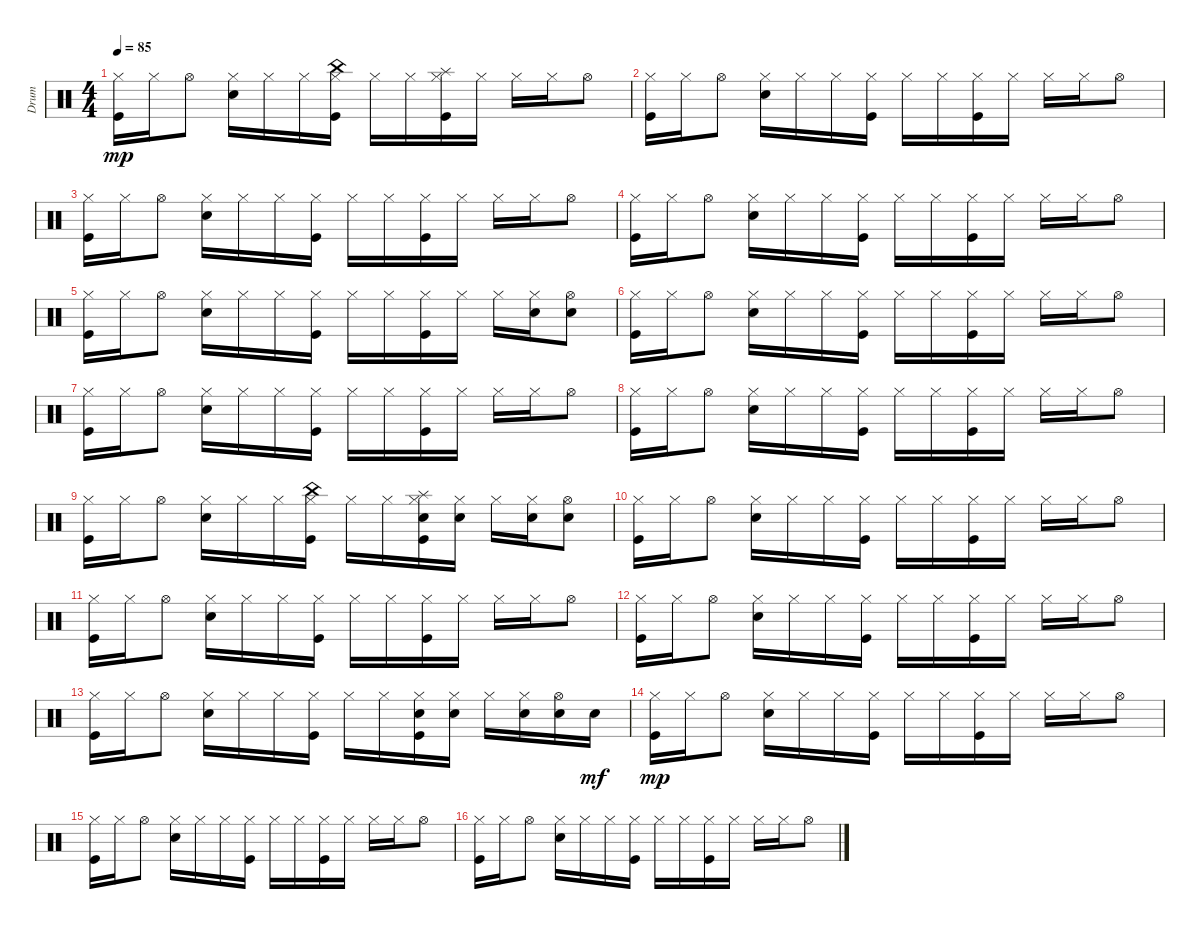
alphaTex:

\track ("Drum" "Drum") {instrument percussion}
\staff {score}
\articulation defaults
\ts (4 4)
\tempo 85
\clef neutral
\ks c
("Kick (hit)" "Hi-Hat (closed)").16{dy mp} "Hi-Hat (closed)".16 "Hi-Hat (open)".8 ("Snare (hit) 2" "Hi-Hat (closed)").16 "Hi-Hat (closed)".16 "Hi-Hat (closed)".16 ("China (hit)" "Kick (hit)" "Hi-Hat (closed)").16 "Hi-Hat (closed)".16 "Hi-Hat (closed)".16 ("Splash (hit)" "Kick (hit)" "Hi-Hat (closed)").16 "Hi-Hat (closed)".16 "Hi-Hat (closed)".16 "Hi-Hat (closed)".16 "Hi-Hat (open)".8 |
("Kick (hit)" "Hi-Hat (closed)").16 "Hi-Hat (closed)".16 "Hi-Hat (open)".8 ("Snare (hit) 2" "Hi-Hat (closed)").16 "Hi-Hat (closed)".16 "Hi-Hat (closed)".16 ("Kick (hit)" "Hi-Hat (closed)").16 "Hi-Hat (closed)".16 "Hi-Hat (closed)".16 ("Hi-Hat (closed)" "Kick (hit)").16 "Hi-Hat (closed)".16 "Hi-Hat (closed)".16 "Hi-Hat (closed)".16 "Hi-Hat (open)".8 |
("Hi-Hat (closed)" "Kick (hit)").16 "Hi-Hat (closed)".16 "Hi-Hat (open)".8 ("Hi-Hat (closed)" "Snare (hit) 2").16 "Hi-Hat (closed)".16 "Hi-Hat (closed)".16 ("Kick (hit)" "Hi-Hat (closed)").16 "Hi-Hat (closed)".16 "Hi-Hat (closed)".16 ("Kick (hit)" "Hi-Hat (closed)").16 "Hi-Hat (closed)".16 "Hi-Hat (closed)".16 "Hi-Hat (closed)".16 "Hi-Hat (open)".8 |
("Kick (hit)" "Hi-Hat (closed)").16 "Hi-Hat (closed)".16 "Hi-Hat (open)".8 ("Snare (hit) 2" "Hi-Hat (closed)").16 "Hi-Hat (closed)".16 "Hi-Hat (closed)".16 ("Kick (hit)" "Hi-Hat (closed)").16 "Hi-Hat (closed)".16 "Hi-Hat (closed)".16 ("Kick (hit)" "Hi-Hat (closed)").16 "Hi-Hat (closed)".16 "Hi-Hat (closed)".16 "Hi-Hat (closed)".16 "Hi-Hat (open)".8 |
("Kick (hit)" "Hi-Hat (closed)").16 "Hi-Hat (closed)".16 "Hi-Hat (open)".8 ("Snare (hit) 2" "Hi-Hat (closed)").16 "Hi-Hat (closed)".16 "Hi-Hat (closed)".16 ("Kick (hit)" "Hi-Hat (closed)").16 "Hi-Hat (closed)".16 "Hi-Hat (closed)".16 ("Kick (hit)" "Hi-Hat (closed)").16 "Hi-Hat (closed)".16 "Hi-Hat (closed)".16 ("Hi-Hat (closed)" "Snare (hit) 2").16 ("Hi-Hat (open)" "Snare (hit) 2").8 |
("Kick (hit)" "Hi-Hat (closed)").16 "Hi-Hat (closed)".16 "Hi-Hat (open)".8 ("Snare (hit) 2" "Hi-Hat (closed)").16 "Hi-Hat (closed)".16 "Hi-Hat (closed)".16 ("Kick (hit)" "Hi-Hat (closed)").16 "Hi-Hat (closed)".16 "Hi-Hat (closed)".16 ("Hi-Hat (closed)" "Kick (hit)").16 "Hi-Hat (closed)".16 "Hi-Hat (closed)".16 "Hi-Hat (closed)".16 "Hi-Hat (open)".8 |
("Hi-Hat (closed)" "Kick (hit)").16 "Hi-Hat (closed)".16 "Hi-Hat (open)".8 ("Hi-Hat (closed)" "Snare (hit) 2").16 "Hi-Hat (closed)".16 "Hi-Hat (closed)".16 ("Kick (hit)" "Hi-Hat (closed)").16 "Hi-Hat (closed)".16 "Hi-Hat (closed)".16 ("Kick (hit)" "Hi-Hat (closed)").16 "Hi-Hat (closed)".16 "Hi-Hat (closed)".16 "Hi-Hat (closed)".16 "Hi-Hat (open)".8 |
("Hi-Hat (closed)" "Kick (hit)").16 "Hi-Hat (closed)".16 "Hi-Hat (open)".8 ("Hi-Hat (closed)" "Snare (hit) 2").16 "Hi-Hat (closed)".16 "Hi-Hat (closed)".16 ("Hi-Hat (closed)" "Kick (hit)").16 "Hi-Hat (closed)".16 "Hi-Hat (closed)".16 ("Hi-Hat (closed)" "Kick (hit)").16 "Hi-Hat (closed)".16 "Hi-Hat (closed)".16 "Hi-Hat (closed)".16 "Hi-Hat (open)".8 |
("Kick (hit)" "Hi-Hat (closed)").16 "Hi-Hat (closed)".16 "Hi-Hat (open)".8 ("Snare (hit) 2" "Hi-Hat (closed)").16 "Hi-Hat (closed)".16 "Hi-Hat (closed)".16 ("China (hit)" "Kick (hit)" "Hi-Hat (closed)").16 "Hi-Hat (closed)".16 "Hi-Hat (closed)".16 ("Splash (hit)" "Kick (hit)" "Hi-Hat (closed)" "Snare (hit) 2").16 ("Hi-Hat (closed)" "Snare (hit) 2").16 "Hi-Hat (closed)".16 ("Hi-Hat (closed)" "Snare (hit) 2").16 ("Hi-Hat (open)" "Snare (hit) 2").8 |
("Kick (hit)" "Hi-Hat (closed)").16 "Hi-Hat (closed)".16 "Hi-Hat (open)".8 ("Snare (hit) 2" "Hi-Hat (closed)").16 "Hi-Hat (closed)".16 "Hi-Hat (closed)".16 ("Kick (hit)" "Hi-Hat (closed)").16 "Hi-Hat (closed)".16 "Hi-Hat (closed)".16 ("Hi-Hat (closed)" "Kick (hit)").16 "Hi-Hat (closed)".16 "Hi-Hat (closed)".16 "Hi-Hat (closed)".16 "Hi-Hat (open)".8 |
("Hi-Hat (closed)" "Kick (hit)").16 "Hi-Hat (closed)".16 "Hi-Hat (open)".8 ("Hi-Hat (closed)" "Snare (hit) 2").16 "Hi-Hat (closed)".16 "Hi-Hat (closed)".16 ("Kick (hit)" "Hi-Hat (closed)").16 "Hi-Hat (closed)".16 "Hi-Hat (closed)".16 ("Kick (hit)" "Hi-Hat (closed)").16 "Hi-Hat (closed)".16 "Hi-Hat (closed)".16 "Hi-Hat (closed)".16 "Hi-Hat (open)".8 |
("Kick (hit)" "Hi-Hat (closed)").16 "Hi-Hat (closed)".16 "Hi-Hat (open)".8 ("Snare (hit) 2" "Hi-Hat (closed)").16 "Hi-Hat (closed)".16 "Hi-Hat (closed)".16 ("Kick (hit)" "Hi-Hat (closed)").16 "Hi-Hat (closed)".16 "Hi-Hat (closed)".16 ("Kick (hit)" "Hi-Hat (closed)").16 "Hi-Hat (closed)".16 "Hi-Hat (closed)".16 "Hi-Hat (closed)".16 "Hi-Hat (open)".8 |
("Kick (hit)" "Hi-Hat (closed)").16 "Hi-Hat (closed)".16 "Hi-Hat (open)".8 ("Snare (hit) 2" "Hi-Hat (closed)").16 "Hi-Hat (closed)".16 "Hi-Hat (closed)".16 ("Kick (hit)" "Hi-Hat (closed)").16 "Hi-Hat (closed)".16 "Hi-Hat (closed)".16 ("Kick (hit)" "Hi-Hat (closed)" "Snare (hit) 2").16 ("Hi-Hat (closed)" "Snare (hit) 2").16 "Hi-Hat (closed)".16 ("Hi-Hat (closed)" "Snare (hit) 2").16 ("Hi-Hat (open)" "Snare (hit) 2").16 "Snare (hit) 2".16{dy mf} |
("Hi-Hat (closed)" "Kick (hit)").16{dy mp} "Hi-Hat (closed)".16 "Hi-Hat (open)".8 ("Hi-Hat (closed)" "Snare (hit) 2").16 "Hi-Hat (closed)".16 "Hi-Hat (closed)".16 ("Hi-Hat (closed)" "Kick (hit)").16 "Hi-Hat (closed)".16 "Hi-Hat (closed)".16 ("Kick (hit)" "Hi-Hat (closed)").16 "Hi-Hat (closed)".16 "Hi-Hat (closed)".16 "Hi-Hat (closed)".16 "Hi-Hat (open)".8 |
("Kick (hit)" "Hi-Hat (closed)").16 "Hi-Hat (closed)".16 "Hi-Hat (open)".8 ("Snare (hit) 2" "Hi-Hat (closed)").16 "Hi-Hat (closed)".16 "Hi-Hat (closed)".16 ("Hi-Hat (closed)" "Kick (hit)").16 "Hi-Hat (closed)".16 "Hi-Hat (closed)".16 ("Hi-Hat (closed)" "Kick (hit)").16 "Hi-Hat (closed)".16 "Hi-Hat (closed)".16 "Hi-Hat (closed)".16 "Hi-Hat (open)".8 |
("Hi-Hat (closed)" "Kick (hit)").16 "Hi-Hat (closed)".16 "Hi-Hat (open)".8 ("Hi-Hat (closed)" "Snare (hit) 2").16 "Hi-Hat (closed)".16 "Hi-Hat (closed)".16 ("Hi-Hat (closed)" "Kick (hit)").16 "Hi-Hat (closed)".16 "Hi-Hat (closed)".16 ("Hi-Hat (closed)" "Kick (hit)").16 "Hi-Hat (closed)".16 "Hi-Hat (closed)".16 "Hi-Hat (closed)".16 "Hi-Hat (open)".8
